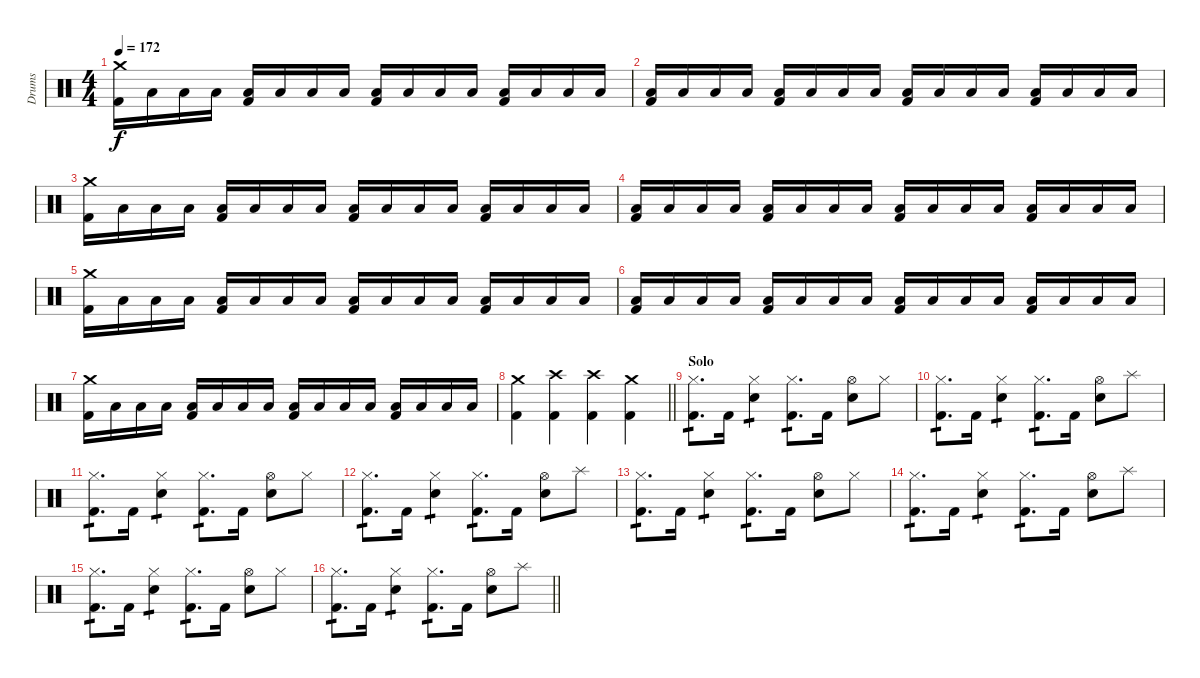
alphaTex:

\track ("Drums" "Drums") {instrument percussion}
\staff {score}
\articulation defaults
\ts (4 4)
\tempo 172
\clef neutral
\ks c
("Crash medium (hit)" "Kick (hit) 2").16{dy f} "Low Tom (hit)".16 "Low Tom (hit)".16 "Low Tom (hit)".16 ("Low Tom (hit)" "Kick (hit) 2").16 "Low Tom (hit)".16 "Low Tom (hit)".16 "Low Tom (hit)".16 ("Low Tom (hit)" "Kick (hit) 2").16 "Low Tom (hit)".16 "Low Tom (hit)".16 "Low Tom (hit)".16 ("Low Tom (hit)" "Kick (hit) 2").16 "Low Tom (hit)".16 "Low Tom (hit)".16 "Low Tom (hit)".16 |
("Low Tom (hit)" "Kick (hit) 2").16 "Low Tom (hit)".16 "Low Tom (hit)".16 "Low Tom (hit)".16 ("Low Tom (hit)" "Kick (hit) 2").16 "Low Tom (hit)".16 "Low Tom (hit)".16 "Low Tom (hit)".16 ("Low Tom (hit)" "Kick (hit) 2").16 "Low Tom (hit)".16 "Low Tom (hit)".16 "Low Tom (hit)".16 ("Low Tom (hit)" "Kick (hit) 2").16 "Low Tom (hit)".16 "Low Tom (hit)".16 "Low Tom (hit)".16 |
("Crash medium (hit)" "Kick (hit) 2").16 "Low Tom (hit)".16 "Low Tom (hit)".16 "Low Tom (hit)".16 ("Low Tom (hit)" "Kick (hit) 2").16 "Low Tom (hit)".16 "Low Tom (hit)".16 "Low Tom (hit)".16 ("Low Tom (hit)" "Kick (hit) 2").16 "Low Tom (hit)".16 "Low Tom (hit)".16 "Low Tom (hit)".16 ("Low Tom (hit)" "Kick (hit) 2").16 "Low Tom (hit)".16 "Low Tom (hit)".16 "Low Tom (hit)".16 |
("Low Tom (hit)" "Kick (hit) 2").16 "Low Tom (hit)".16 "Low Tom (hit)".16 "Low Tom (hit)".16 ("Low Tom (hit)" "Kick (hit) 2").16 "Low Tom (hit)".16 "Low Tom (hit)".16 "Low Tom (hit)".16 ("Low Tom (hit)" "Kick (hit) 2").16 "Low Tom (hit)".16 "Low Tom (hit)".16 "Low Tom (hit)".16 ("Low Tom (hit)" "Kick (hit) 2").16 "Low Tom (hit)".16 "Low Tom (hit)".16 "Low Tom (hit)".16 |
("Crash medium (hit)" "Kick (hit) 2").16 "Low Tom (hit)".16 "Low Tom (hit)".16 "Low Tom (hit)".16 ("Low Tom (hit)" "Kick (hit) 2").16 "Low Tom (hit)".16 "Low Tom (hit)".16 "Low Tom (hit)".16 ("Low Tom (hit)" "Kick (hit) 2").16 "Low Tom (hit)".16 "Low Tom (hit)".16 "Low Tom (hit)".16 ("Low Tom (hit)" "Kick (hit) 2").16 "Low Tom (hit)".16 "Low Tom (hit)".16 "Low Tom (hit)".16 |
("Low Tom (hit)" "Kick (hit) 2").16 "Low Tom (hit)".16 "Low Tom (hit)".16 "Low Tom (hit)".16 ("Low Tom (hit)" "Kick (hit) 2").16 "Low Tom (hit)".16 "Low Tom (hit)".16 "Low Tom (hit)".16 ("Low Tom (hit)" "Kick (hit) 2").16 "Low Tom (hit)".16 "Low Tom (hit)".16 "Low Tom (hit)".16 ("Low Tom (hit)" "Kick (hit) 2").16 "Low Tom (hit)".16 "Low Tom (hit)".16 "Low Tom (hit)".16 |
("Crash medium (hit)" "Kick (hit) 2").16 "Low Tom (hit)".16 "Low Tom (hit)".16 "Low Tom (hit)".16 ("Low Tom (hit)" "Kick (hit) 2").16 "Low Tom (hit)".16 "Low Tom (hit)".16 "Low Tom (hit)".16 ("Low Tom (hit)" "Kick (hit) 2").16 "Low Tom (hit)".16 "Low Tom (hit)".16 "Low Tom (hit)".16 ("Low Tom (hit)" "Kick (hit) 2").16 "Low Tom (hit)".16 "Low Tom (hit)".16 "Low Tom (hit)".16 |
\barLineRight lightlight
("Crash medium (hit)" "Kick (hit) 2").4 ("Crash high (hit)" "Kick (hit) 2").4 ("Crash high (hit)" "Kick (hit) 2").4 ("Crash medium (hit)" "Kick (hit) 2").4 |
\section ("" "Solo")
("Hi-Hat (closed)" "Kick (hit) 2").8{d tp 1} "Kick (hit) 2".16 ("Hi-Hat (closed)" "Electric Snare (hit)").4{tp 1} ("Hi-Hat (closed)" "Kick (hit) 2").8{d tp 1} "Kick (hit) 2".16 ("Hi-Hat (open)" "Electric Snare (hit)").8 "Hi-Hat (closed)".8 |
("Hi-Hat (closed)" "Kick (hit) 2").8{d tp 1} "Kick (hit) 2".16 ("Hi-Hat (closed)" "Electric Snare (hit)").4{tp 1} ("Hi-Hat (closed)" "Kick (hit) 2").8{d tp 1} "Kick (hit) 2".16 ("Hi-Hat (open)" "Electric Snare (hit)").8 "Splash (hit)".8 |
("Hi-Hat (closed)" "Kick (hit) 2").8{d tp 1} "Kick (hit) 2".16 ("Hi-Hat (closed)" "Electric Snare (hit)").4{tp 1} ("Hi-Hat (closed)" "Kick (hit) 2").8{d tp 1} "Kick (hit) 2".16 ("Hi-Hat (open)" "Electric Snare (hit)").8 "Hi-Hat (closed)".8 |
("Hi-Hat (closed)" "Kick (hit) 2").8{d tp 1} "Kick (hit) 2".16 ("Hi-Hat (closed)" "Electric Snare (hit)").4{tp 1} ("Hi-Hat (closed)" "Kick (hit) 2").8{d tp 1} "Kick (hit) 2".16 ("Hi-Hat (open)" "Electric Snare (hit)").8 "Splash (hit)".8 |
("Hi-Hat (closed)" "Kick (hit) 2").8{d tp 1} "Kick (hit) 2".16 ("Hi-Hat (closed)" "Electric Snare (hit)").4{tp 1} ("Hi-Hat (closed)" "Kick (hit) 2").8{d tp 1} "Kick (hit) 2".16 ("Hi-Hat (open)" "Electric Snare (hit)").8 "Hi-Hat (closed)".8 |
("Hi-Hat (closed)" "Kick (hit) 2").8{d tp 1} "Kick (hit) 2".16 ("Hi-Hat (closed)" "Electric Snare (hit)").4{tp 1} ("Hi-Hat (closed)" "Kick (hit) 2").8{d tp 1} "Kick (hit) 2".16 ("Hi-Hat (open)" "Electric Snare (hit)").8 "Splash (hit)".8 |
("Hi-Hat (closed)" "Kick (hit) 2").8{d tp 1} "Kick (hit) 2".16 ("Hi-Hat (closed)" "Electric Snare (hit)").4{tp 1} ("Hi-Hat (closed)" "Kick (hit) 2").8{d tp 1} "Kick (hit) 2".16 ("Hi-Hat (open)" "Electric Snare (hit)").8 "Hi-Hat (closed)".8 |
\barLineRight lightlight
("Hi-Hat (closed)" "Kick (hit) 2").8{d tp 1} "Kick (hit) 2".16 ("Hi-Hat (closed)" "Electric Snare (hit)").4{tp 1} ("Hi-Hat (closed)" "Kick (hit) 2").8{d tp 1} "Kick (hit) 2".16 ("Hi-Hat (open)" "Electric Snare (hit)").8 "Splash (hit)".8
